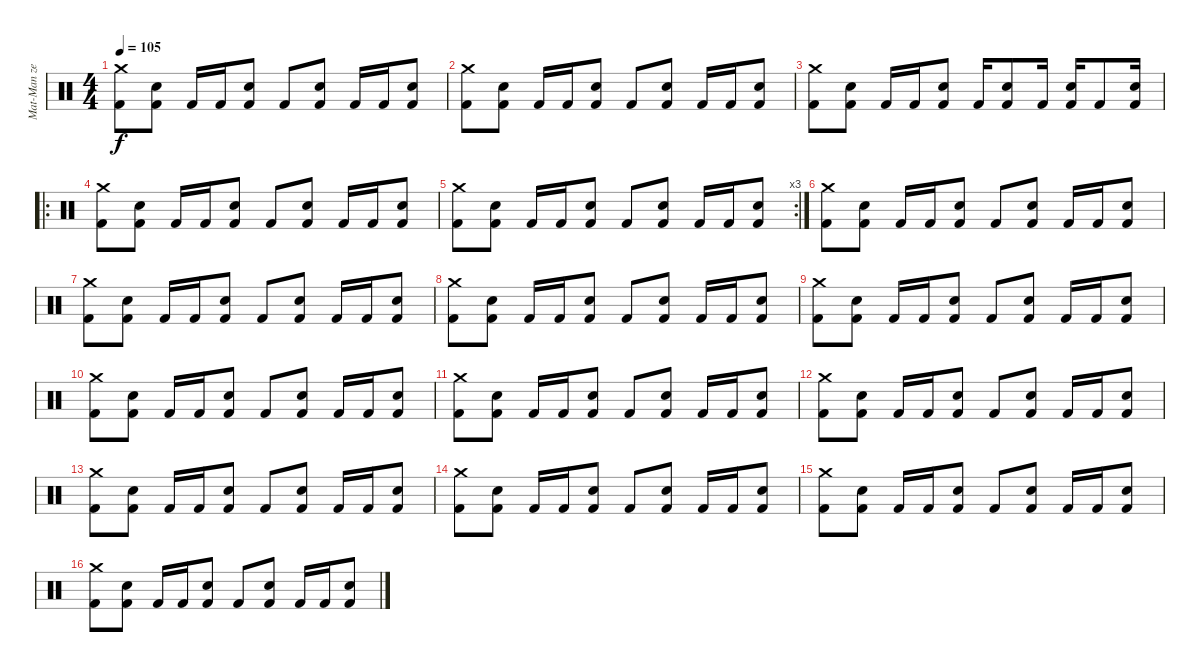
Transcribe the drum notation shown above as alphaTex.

\track ("Mat-Man ze defract" "Mat-Man ze") {instrument percussion}
\staff {score}
\articulation defaults
\ts (4 4)
\tempo 105
\clef neutral
\ks c
("Crash medium (hit)" "Kick (hit) 2").8{dy f} ("Snare (hit) 2" "Kick (hit) 2").8 "Kick (hit) 2".16 "Kick (hit) 2".16 ("Snare (hit) 2" "Kick (hit) 2").8 "Kick (hit) 2".8 ("Snare (hit) 2" "Kick (hit) 2").8 "Kick (hit) 2".16 "Kick (hit) 2".16 ("Snare (hit) 2" "Kick (hit) 2").8 |
("Crash medium (hit)" "Kick (hit) 2").8 ("Snare (hit) 2" "Kick (hit) 2").8 "Kick (hit) 2".16 "Kick (hit) 2".16 ("Snare (hit) 2" "Kick (hit) 2").8 "Kick (hit) 2".8 ("Snare (hit) 2" "Kick (hit) 2").8 "Kick (hit) 2".16 "Kick (hit) 2".16 ("Snare (hit) 2" "Kick (hit) 2").8 |
("Crash medium (hit)" "Kick (hit) 2").8 ("Snare (hit) 2" "Kick (hit) 2").8 "Kick (hit) 2".16 "Kick (hit) 2".16 ("Snare (hit) 2" "Kick (hit) 2").8 "Kick (hit) 2".16 ("Snare (hit) 2" "Kick (hit) 2").8 "Kick (hit) 2".16 ("Snare (hit) 2" "Kick (hit) 2").16 "Kick (hit) 2".8 ("Snare (hit) 2" "Kick (hit) 2").16 |
\ro
("Crash medium (hit)" "Kick (hit) 2").8 ("Snare (hit) 2" "Kick (hit) 2").8 "Kick (hit) 2".16 "Kick (hit) 2".16 ("Snare (hit) 2" "Kick (hit) 2").8 "Kick (hit) 2".8 ("Snare (hit) 2" "Kick (hit) 2").8 "Kick (hit) 2".16 "Kick (hit) 2".16 ("Snare (hit) 2" "Kick (hit) 2").8 |
\rc 3
("Crash medium (hit)" "Kick (hit) 2").8 ("Snare (hit) 2" "Kick (hit) 2").8 "Kick (hit) 2".16 "Kick (hit) 2".16 ("Snare (hit) 2" "Kick (hit) 2").8 "Kick (hit) 2".8 ("Snare (hit) 2" "Kick (hit) 2").8 "Kick (hit) 2".16 "Kick (hit) 2".16 ("Snare (hit) 2" "Kick (hit) 2").8 |
("Crash medium (hit)" "Kick (hit) 2").8 ("Snare (hit) 2" "Kick (hit) 2").8 "Kick (hit) 2".16 "Kick (hit) 2".16 ("Snare (hit) 2" "Kick (hit) 2").8 "Kick (hit) 2".8 ("Snare (hit) 2" "Kick (hit) 2").8 "Kick (hit) 2".16 "Kick (hit) 2".16 ("Snare (hit) 2" "Kick (hit) 2").8 |
("Crash medium (hit)" "Kick (hit) 2").8 ("Snare (hit) 2" "Kick (hit) 2").8 "Kick (hit) 2".16 "Kick (hit) 2".16 ("Snare (hit) 2" "Kick (hit) 2").8 "Kick (hit) 2".8 ("Snare (hit) 2" "Kick (hit) 2").8 "Kick (hit) 2".16 "Kick (hit) 2".16 ("Snare (hit) 2" "Kick (hit) 2").8 |
("Crash medium (hit)" "Kick (hit) 2").8 ("Snare (hit) 2" "Kick (hit) 2").8 "Kick (hit) 2".16 "Kick (hit) 2".16 ("Snare (hit) 2" "Kick (hit) 2").8 "Kick (hit) 2".8 ("Snare (hit) 2" "Kick (hit) 2").8 "Kick (hit) 2".16 "Kick (hit) 2".16 ("Snare (hit) 2" "Kick (hit) 2").8 |
("Crash medium (hit)" "Kick (hit) 2").8 ("Snare (hit) 2" "Kick (hit) 2").8 "Kick (hit) 2".16 "Kick (hit) 2".16 ("Snare (hit) 2" "Kick (hit) 2").8 "Kick (hit) 2".8 ("Snare (hit) 2" "Kick (hit) 2").8 "Kick (hit) 2".16 "Kick (hit) 2".16 ("Snare (hit) 2" "Kick (hit) 2").8 |
("Crash medium (hit)" "Kick (hit) 2").8 ("Snare (hit) 2" "Kick (hit) 2").8 "Kick (hit) 2".16 "Kick (hit) 2".16 ("Snare (hit) 2" "Kick (hit) 2").8 "Kick (hit) 2".8 ("Snare (hit) 2" "Kick (hit) 2").8 "Kick (hit) 2".16 "Kick (hit) 2".16 ("Snare (hit) 2" "Kick (hit) 2").8 |
("Crash medium (hit)" "Kick (hit) 2").8 ("Snare (hit) 2" "Kick (hit) 2").8 "Kick (hit) 2".16 "Kick (hit) 2".16 ("Snare (hit) 2" "Kick (hit) 2").8 "Kick (hit) 2".8 ("Snare (hit) 2" "Kick (hit) 2").8 "Kick (hit) 2".16 "Kick (hit) 2".16 ("Snare (hit) 2" "Kick (hit) 2").8 |
("Crash medium (hit)" "Kick (hit) 2").8 ("Snare (hit) 2" "Kick (hit) 2").8 "Kick (hit) 2".16 "Kick (hit) 2".16 ("Snare (hit) 2" "Kick (hit) 2").8 "Kick (hit) 2".8 ("Snare (hit) 2" "Kick (hit) 2").8 "Kick (hit) 2".16 "Kick (hit) 2".16 ("Snare (hit) 2" "Kick (hit) 2").8 |
("Crash medium (hit)" "Kick (hit) 2").8 ("Snare (hit) 2" "Kick (hit) 2").8 "Kick (hit) 2".16 "Kick (hit) 2".16 ("Snare (hit) 2" "Kick (hit) 2").8 "Kick (hit) 2".8 ("Snare (hit) 2" "Kick (hit) 2").8 "Kick (hit) 2".16 "Kick (hit) 2".16 ("Snare (hit) 2" "Kick (hit) 2").8 |
("Crash medium (hit)" "Kick (hit) 2").8 ("Snare (hit) 2" "Kick (hit) 2").8 "Kick (hit) 2".16 "Kick (hit) 2".16 ("Snare (hit) 2" "Kick (hit) 2").8 "Kick (hit) 2".8 ("Snare (hit) 2" "Kick (hit) 2").8 "Kick (hit) 2".16 "Kick (hit) 2".16 ("Snare (hit) 2" "Kick (hit) 2").8 |
("Crash medium (hit)" "Kick (hit) 2").8 ("Snare (hit) 2" "Kick (hit) 2").8 "Kick (hit) 2".16 "Kick (hit) 2".16 ("Snare (hit) 2" "Kick (hit) 2").8 "Kick (hit) 2".8 ("Snare (hit) 2" "Kick (hit) 2").8 "Kick (hit) 2".16 "Kick (hit) 2".16 ("Snare (hit) 2" "Kick (hit) 2").8 |
("Crash medium (hit)" "Kick (hit) 2").8 ("Snare (hit) 2" "Kick (hit) 2").8 "Kick (hit) 2".16 "Kick (hit) 2".16 ("Snare (hit) 2" "Kick (hit) 2").8 "Kick (hit) 2".8 ("Snare (hit) 2" "Kick (hit) 2").8 "Kick (hit) 2".16 "Kick (hit) 2".16 ("Snare (hit) 2" "Kick (hit) 2").8
